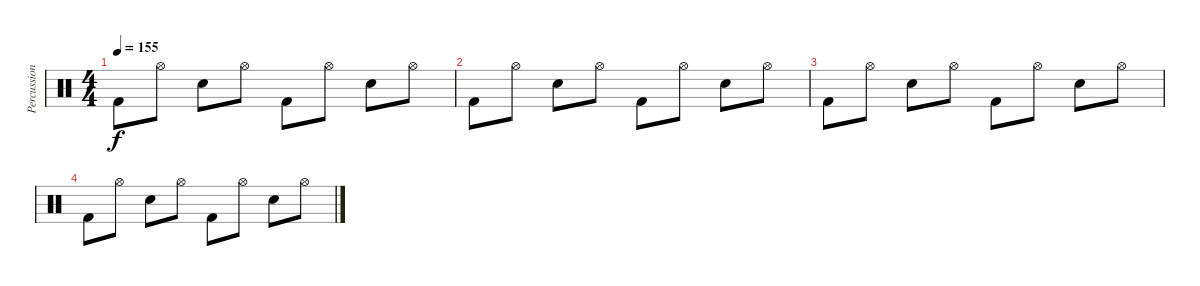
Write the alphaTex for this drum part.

\track ("Percussion" "Percussion") {instrument percussion}
\staff {score}
\articulation defaults
\ts (4 4)
\tempo 155
\clef neutral
\ks c "Kick (hit) 2".8{dy f} "Hi-Hat (open)".8 "Electric Snare (hit)".8 "Hi-Hat (open)".8 "Kick (hit) 2".8 "Hi-Hat (open)".8 "Electric Snare (hit)".8 "Hi-Hat (open)".8
|
"Kick (hit) 2".8 "Hi-Hat (open)".8 "Electric Snare (hit)".8 "Hi-Hat (open)".8 "Kick (hit) 2".8 "Hi-Hat (open)".8 "Electric Snare (hit)".8 "Hi-Hat (open)".8 |
"Kick (hit) 2".8 "Hi-Hat (open)".8 "Electric Snare (hit)".8 "Hi-Hat (open)".8 "Kick (hit) 2".8 "Hi-Hat (open)".8 "Electric Snare (hit)".8 "Hi-Hat (open)".8 |
"Kick (hit) 2".8 "Hi-Hat (open)".8 "Electric Snare (hit)".8 "Hi-Hat (open)".8 "Kick (hit) 2".8 "Hi-Hat (open)".8 "Electric Snare (hit)".8 "Hi-Hat (open)".8
